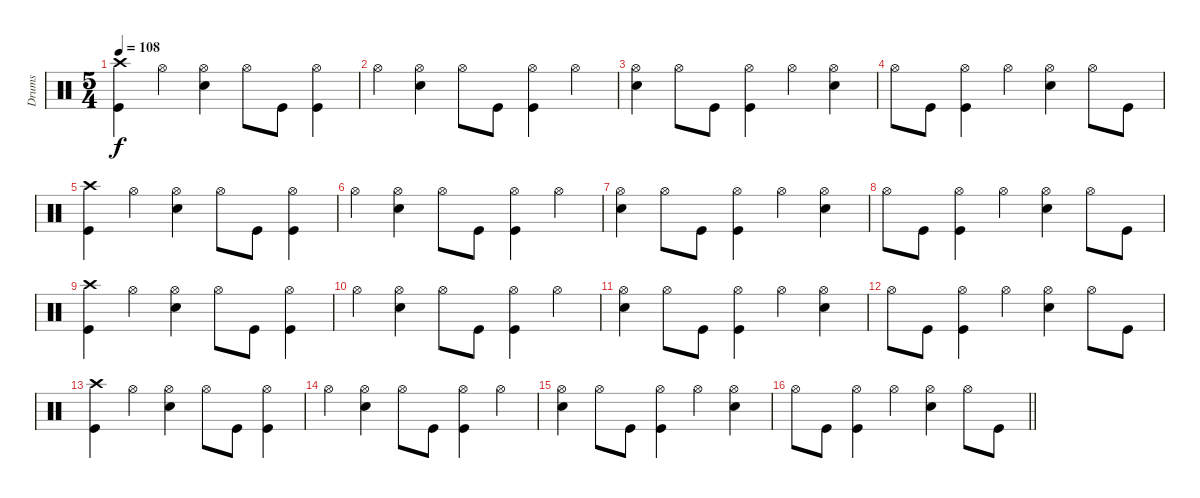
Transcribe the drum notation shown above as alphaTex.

\track ("Drums" "Drums") {instrument percussion}
\staff {score}
\articulation defaults
\ts (5 4)
\tempo 108
\clef neutral
\ks c
("Kick (hit)" "Crash high (hit)").4{dy f} "Hi-Hat (open)".4 ("Electric Snare (hit)" "Hi-Hat (open)").4 "Hi-Hat (open)".8 "Kick (hit)".8 ("Kick (hit)" "Hi-Hat (open)").4 |
"Hi-Hat (open)".4 ("Electric Snare (hit)" "Hi-Hat (open)").4 "Hi-Hat (open)".8 "Kick (hit)".8 ("Kick (hit)" "Hi-Hat (open)").4 "Hi-Hat (open)".4 |
("Electric Snare (hit)" "Hi-Hat (open)").4 "Hi-Hat (open)".8 "Kick (hit)".8 ("Kick (hit)" "Hi-Hat (open)").4 "Hi-Hat (open)".4 ("Electric Snare (hit)" "Hi-Hat (open)").4 |
"Hi-Hat (open)".8 "Kick (hit)".8 ("Kick (hit)" "Hi-Hat (open)").4 "Hi-Hat (open)".4 ("Electric Snare (hit)" "Hi-Hat (open)").4 "Hi-Hat (open)".8 "Kick (hit)".8 |
("Kick (hit)" "Crash high (hit)").4 "Hi-Hat (open)".4 ("Electric Snare (hit)" "Hi-Hat (open)").4 "Hi-Hat (open)".8 "Kick (hit)".8 ("Kick (hit)" "Hi-Hat (open)").4 |
"Hi-Hat (open)".4 ("Electric Snare (hit)" "Hi-Hat (open)").4 "Hi-Hat (open)".8 "Kick (hit)".8 ("Kick (hit)" "Hi-Hat (open)").4 "Hi-Hat (open)".4 |
("Electric Snare (hit)" "Hi-Hat (open)").4 "Hi-Hat (open)".8 "Kick (hit)".8 ("Kick (hit)" "Hi-Hat (open)").4 "Hi-Hat (open)".4 ("Electric Snare (hit)" "Hi-Hat (open)").4 |
"Hi-Hat (open)".8 "Kick (hit)".8 ("Kick (hit)" "Hi-Hat (open)").4 "Hi-Hat (open)".4 ("Electric Snare (hit)" "Hi-Hat (open)").4 "Hi-Hat (open)".8 "Kick (hit)".8 |
("Kick (hit)" "Crash high (hit)").4 "Hi-Hat (open)".4 ("Electric Snare (hit)" "Hi-Hat (open)").4 "Hi-Hat (open)".8 "Kick (hit)".8 ("Kick (hit)" "Hi-Hat (open)").4 |
"Hi-Hat (open)".4 ("Electric Snare (hit)" "Hi-Hat (open)").4 "Hi-Hat (open)".8 "Kick (hit)".8 ("Kick (hit)" "Hi-Hat (open)").4 "Hi-Hat (open)".4 |
("Electric Snare (hit)" "Hi-Hat (open)").4 "Hi-Hat (open)".8 "Kick (hit)".8 ("Kick (hit)" "Hi-Hat (open)").4 "Hi-Hat (open)".4 ("Electric Snare (hit)" "Hi-Hat (open)").4 |
"Hi-Hat (open)".8 "Kick (hit)".8 ("Kick (hit)" "Hi-Hat (open)").4 "Hi-Hat (open)".4 ("Electric Snare (hit)" "Hi-Hat (open)").4 "Hi-Hat (open)".8 "Kick (hit)".8 |
("Kick (hit)" "Crash high (hit)").4 "Hi-Hat (open)".4 ("Electric Snare (hit)" "Hi-Hat (open)").4 "Hi-Hat (open)".8 "Kick (hit)".8 ("Kick (hit)" "Hi-Hat (open)").4 |
"Hi-Hat (open)".4 ("Electric Snare (hit)" "Hi-Hat (open)").4 "Hi-Hat (open)".8 "Kick (hit)".8 ("Kick (hit)" "Hi-Hat (open)").4 "Hi-Hat (open)".4 |
("Electric Snare (hit)" "Hi-Hat (open)").4 "Hi-Hat (open)".8 "Kick (hit)".8 ("Kick (hit)" "Hi-Hat (open)").4 "Hi-Hat (open)".4 ("Electric Snare (hit)" "Hi-Hat (open)").4 |
\barLineRight lightlight "Hi-Hat (open)".8 "Kick (hit)".8
("Kick (hit)" "Hi-Hat (open)").4 "Hi-Hat (open)".4 ("Electric Snare (hit)" "Hi-Hat (open)").4 "Hi-Hat (open)".8 "Kick (hit)".8
